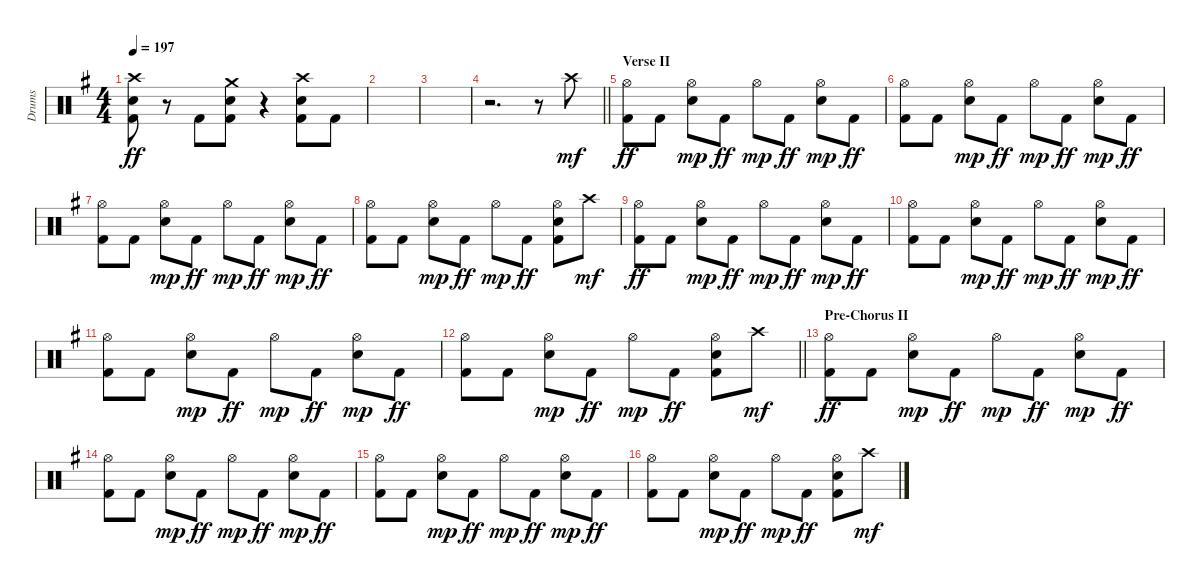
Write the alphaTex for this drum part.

\track ("Drums" "Drums") {instrument percussion}
\staff {score}
\articulation defaults
\ts (4 4)
\tempo 197
\clef neutral
\ks g
("Crash high (hit)" "Snare (hit) 2" "Kick (hit) 2").8{dy ff} r.8 "Kick (hit) 2".8 ("Crash medium (hit)" "Snare (hit) 2" "Kick (hit) 2").8 r.4 ("Crash high (hit)" "Snare (hit) 2" "Kick (hit) 2").8 "Kick (hit) 2".8 |
|
|
\barLineRight lightlight
r.2{d} r.8 "Crash high (hit)".8{dy mf} |
\section ("" "Verse II")
("Hi-Hat (open)" "Kick (hit) 2").8{dy ff} "Kick (hit) 2".8 ("Hi-Hat (open)" "Snare (hit) 2").8{dy mp} "Kick (hit) 2".8{dy ff} "Hi-Hat (open)".8{dy mp} "Kick (hit) 2".8{dy ff} ("Hi-Hat (open)" "Snare (hit) 2").8{dy mp} "Kick (hit) 2".8{dy ff} |
("Hi-Hat (open)" "Kick (hit) 2").8 "Kick (hit) 2".8 ("Hi-Hat (open)" "Snare (hit) 2").8{dy mp} "Kick (hit) 2".8{dy ff} "Hi-Hat (open)".8{dy mp} "Kick (hit) 2".8{dy ff} ("Hi-Hat (open)" "Snare (hit) 2").8{dy mp} "Kick (hit) 2".8{dy ff} |
("Hi-Hat (open)" "Kick (hit) 2").8 "Kick (hit) 2".8 ("Hi-Hat (open)" "Snare (hit) 2").8{dy mp} "Kick (hit) 2".8{dy ff} "Hi-Hat (open)".8{dy mp} "Kick (hit) 2".8{dy ff} ("Hi-Hat (open)" "Snare (hit) 2").8{dy mp} "Kick (hit) 2".8{dy ff} |
("Hi-Hat (open)" "Kick (hit) 2").8 "Kick (hit) 2".8 ("Hi-Hat (open)" "Snare (hit) 2").8{dy mp} "Kick (hit) 2".8{dy ff} "Hi-Hat (open)".8{dy mp} "Kick (hit) 2".8{dy ff} ("Hi-Hat (open)" "Snare (hit) 2" "Kick (hit) 2").8 "Crash high (hit)".8{dy mf} |
("Hi-Hat (open)" "Kick (hit) 2").8{dy ff} "Kick (hit) 2".8 ("Hi-Hat (open)" "Snare (hit) 2").8{dy mp} "Kick (hit) 2".8{dy ff} "Hi-Hat (open)".8{dy mp} "Kick (hit) 2".8{dy ff} ("Hi-Hat (open)" "Snare (hit) 2").8{dy mp} "Kick (hit) 2".8{dy ff} |
("Hi-Hat (open)" "Kick (hit) 2").8 "Kick (hit) 2".8 ("Hi-Hat (open)" "Snare (hit) 2").8{dy mp} "Kick (hit) 2".8{dy ff} "Hi-Hat (open)".8{dy mp} "Kick (hit) 2".8{dy ff} ("Hi-Hat (open)" "Snare (hit) 2").8{dy mp} "Kick (hit) 2".8{dy ff} |
("Hi-Hat (open)" "Kick (hit) 2").8 "Kick (hit) 2".8 ("Hi-Hat (open)" "Snare (hit) 2").8{dy mp} "Kick (hit) 2".8{dy ff} "Hi-Hat (open)".8{dy mp} "Kick (hit) 2".8{dy ff} ("Hi-Hat (open)" "Snare (hit) 2").8{dy mp} "Kick (hit) 2".8{dy ff} |
\barLineRight lightlight
("Hi-Hat (open)" "Kick (hit) 2").8 "Kick (hit) 2".8 ("Hi-Hat (open)" "Snare (hit) 2").8{dy mp} "Kick (hit) 2".8{dy ff} "Hi-Hat (open)".8{dy mp} "Kick (hit) 2".8{dy ff} ("Hi-Hat (open)" "Snare (hit) 2" "Kick (hit) 2").8 "Crash high (hit)".8{dy mf} |
\section ("" "Pre-Chorus II")
("Hi-Hat (open)" "Kick (hit) 2").8{dy ff} "Kick (hit) 2".8 ("Hi-Hat (open)" "Snare (hit) 2").8{dy mp} "Kick (hit) 2".8{dy ff} "Hi-Hat (open)".8{dy mp} "Kick (hit) 2".8{dy ff} ("Hi-Hat (open)" "Snare (hit) 2").8{dy mp} "Kick (hit) 2".8{dy ff} |
("Hi-Hat (open)" "Kick (hit) 2").8 "Kick (hit) 2".8 ("Hi-Hat (open)" "Snare (hit) 2").8{dy mp} "Kick (hit) 2".8{dy ff} "Hi-Hat (open)".8{dy mp} "Kick (hit) 2".8{dy ff} ("Hi-Hat (open)" "Snare (hit) 2").8{dy mp} "Kick (hit) 2".8{dy ff} |
("Hi-Hat (open)" "Kick (hit) 2").8 "Kick (hit) 2".8 ("Hi-Hat (open)" "Snare (hit) 2").8{dy mp} "Kick (hit) 2".8{dy ff} "Hi-Hat (open)".8{dy mp} "Kick (hit) 2".8{dy ff} ("Hi-Hat (open)" "Snare (hit) 2").8{dy mp} "Kick (hit) 2".8{dy ff} |
("Hi-Hat (open)" "Kick (hit) 2").8 "Kick (hit) 2".8 ("Hi-Hat (open)" "Snare (hit) 2").8{dy mp} "Kick (hit) 2".8{dy ff} "Hi-Hat (open)".8{dy mp} "Kick (hit) 2".8{dy ff} ("Hi-Hat (open)" "Snare (hit) 2" "Kick (hit) 2").8 "Crash high (hit)".8{dy mf}
